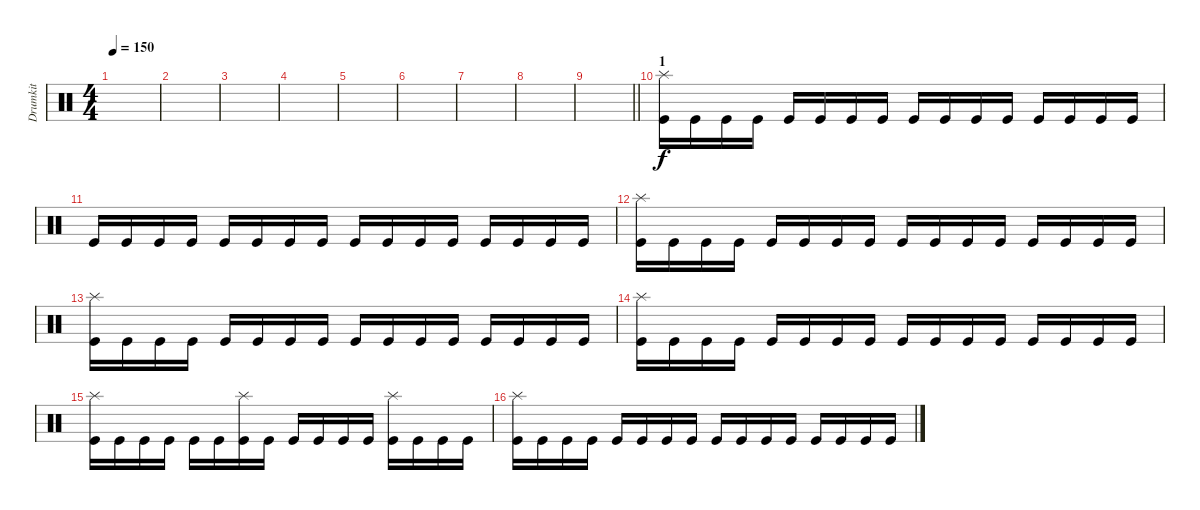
\track ("Drumkit" "Drumkit") {instrument percussion}
\staff {score}
\articulation defaults
\ts (4 4)
\tempo 150
\clef neutral
\ks c
|
|
|
|
|
|
|
|
\barLineRight lightlight
|
\section ("" "1")
("Kick (hit)" "Splash (hit)").16 "Kick (hit)".16 "Kick (hit)".16 "Kick (hit)".16 "Kick (hit)".16 "Kick (hit)".16 "Kick (hit)".16 "Kick (hit)".16 "Kick (hit)".16 "Kick (hit)".16 "Kick (hit)".16 "Kick (hit)".16 "Kick (hit)".16 "Kick (hit)".16 "Kick (hit)".16 "Kick (hit)".16 |
"Kick (hit)".16 "Kick (hit)".16 "Kick (hit)".16 "Kick (hit)".16 "Kick (hit)".16 "Kick (hit)".16 "Kick (hit)".16 "Kick (hit)".16 "Kick (hit)".16 "Kick (hit)".16 "Kick (hit)".16 "Kick (hit)".16 "Kick (hit)".16 "Kick (hit)".16 "Kick (hit)".16 "Kick (hit)".16 |
("Kick (hit)" "Splash (hit)").16 "Kick (hit)".16 "Kick (hit)".16 "Kick (hit)".16 "Kick (hit)".16 "Kick (hit)".16 "Kick (hit)".16 "Kick (hit)".16 "Kick (hit)".16 "Kick (hit)".16 "Kick (hit)".16 "Kick (hit)".16 "Kick (hit)".16 "Kick (hit)".16 "Kick (hit)".16 "Kick (hit)".16 |
("Kick (hit)" "Splash (hit)").16 "Kick (hit)".16 "Kick (hit)".16 "Kick (hit)".16 "Kick (hit)".16 "Kick (hit)".16 "Kick (hit)".16 "Kick (hit)".16 "Kick (hit)".16 "Kick (hit)".16 "Kick (hit)".16 "Kick (hit)".16 "Kick (hit)".16 "Kick (hit)".16 "Kick (hit)".16 "Kick (hit)".16 |
("Kick (hit)" "Splash (hit)").16 "Kick (hit)".16 "Kick (hit)".16 "Kick (hit)".16 "Kick (hit)".16 "Kick (hit)".16 "Kick (hit)".16 "Kick (hit)".16 "Kick (hit)".16 "Kick (hit)".16 "Kick (hit)".16 "Kick (hit)".16 "Kick (hit)".16 "Kick (hit)".16 "Kick (hit)".16 "Kick (hit)".16 |
("Kick (hit)" "Splash (hit)").16 "Kick (hit)".16 "Kick (hit)".16 "Kick (hit)".16 "Kick (hit)".16 "Kick (hit)".16 ("Kick (hit)" "Splash (hit)").16 "Kick (hit)".16 "Kick (hit)".16 "Kick (hit)".16 "Kick (hit)".16 "Kick (hit)".16 ("Kick (hit)" "Splash (hit)").16 "Kick (hit)".16 "Kick (hit)".16 "Kick (hit)".16 |
("Kick (hit)" "Splash (hit)").16 "Kick (hit)".16 "Kick (hit)".16 "Kick (hit)".16 "Kick (hit)".16 "Kick (hit)".16 "Kick (hit)".16 "Kick (hit)".16 "Kick (hit)".16 "Kick (hit)".16 "Kick (hit)".16 "Kick (hit)".16 "Kick (hit)".16 "Kick (hit)".16 "Kick (hit)".16 "Kick (hit)".16
